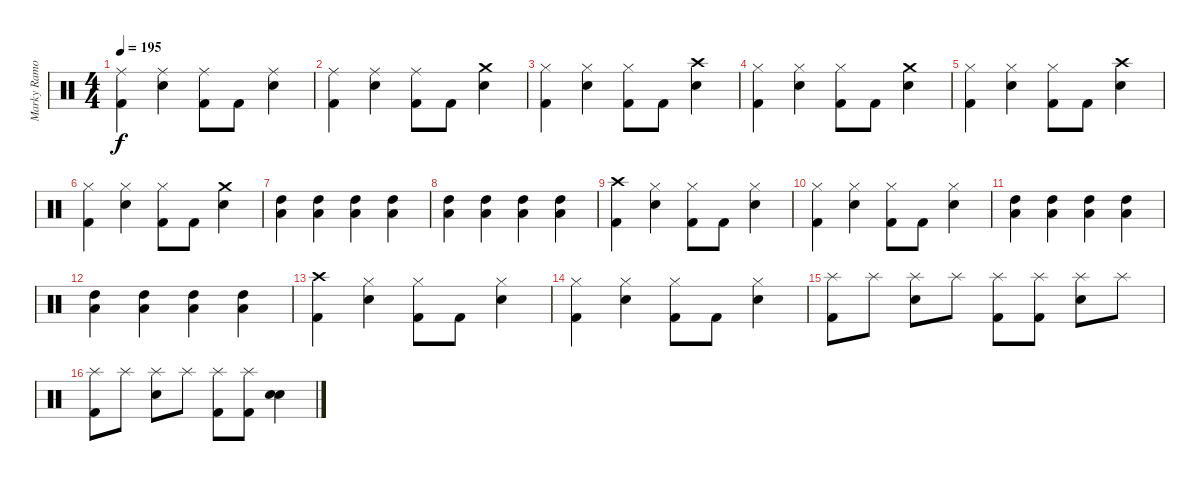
\track ("Marky Ramone" "Marky Ramo") {instrument percussion}
\staff {score}
\articulation defaults
\ts (4 4)
\tempo 195
\clef neutral
\ks c
("Ride (middle)" "Kick (hit) 2").4{dy f} ("Ride (middle)" "Snare (hit) 2").4 ("Ride (middle)" "Kick (hit) 2").8 "Kick (hit) 2".8 ("Ride (middle)" "Snare (hit) 2").4 |
("Ride (middle)" "Kick (hit) 2").4 ("Ride (middle)" "Snare (hit) 2").4 ("Ride (middle)" "Kick (hit) 2").8 "Kick (hit) 2".8 ("Crash medium (hit)" "Snare (hit) 2").4 |
("Hi-Hat (closed)" "Kick (hit) 2").4 ("Hi-Hat (closed)" "Snare (hit) 2").4 ("Hi-Hat (closed)" "Kick (hit) 2").8 "Kick (hit) 2".8 ("Crash high (hit)" "Snare (hit) 2").4 |
("Hi-Hat (closed)" "Kick (hit) 2").4 ("Hi-Hat (closed)" "Snare (hit) 2").4 ("Hi-Hat (closed)" "Kick (hit) 2").8 "Kick (hit) 2".8 ("Crash medium (hit)" "Snare (hit) 2").4 |
("Hi-Hat (closed)" "Kick (hit) 2").4 ("Hi-Hat (closed)" "Snare (hit) 2").4 ("Hi-Hat (closed)" "Kick (hit) 2").8 "Kick (hit) 2".8 ("Crash high (hit)" "Snare (hit) 2").4 |
("Hi-Hat (closed)" "Kick (hit) 2").4 ("Hi-Hat (closed)" "Snare (hit) 2").4 ("Hi-Hat (closed)" "Kick (hit) 2").8 "Kick (hit) 2".8 ("Crash medium (hit)" "Snare (hit) 2").4 |
("Low Floor Tom (hit)" "High Tom (hit)").4 ("Low Floor Tom (hit)" "High Tom (hit)").4 ("Low Floor Tom (hit)" "High Tom (hit)").4 ("Low Floor Tom (hit)" "High Tom (hit)").4 |
("Low Floor Tom (hit)" "High Tom (hit)").4 ("Low Floor Tom (hit)" "High Tom (hit)").4 ("Low Floor Tom (hit)" "High Tom (hit)").4 ("Low Floor Tom (hit)" "High Tom (hit)").4 |
("Crash high (hit)" "Kick (hit) 2").4 ("Hi-Hat (closed)" "Snare (hit) 2").4 ("Hi-Hat (closed)" "Kick (hit) 2").8 "Kick (hit) 2".8 ("Hi-Hat (closed)" "Snare (hit) 2").4 |
("Hi-Hat (closed)" "Kick (hit) 2").4 ("Hi-Hat (closed)" "Snare (hit) 2").4 ("Hi-Hat (closed)" "Kick (hit) 2").8 "Kick (hit) 2".8 ("Hi-Hat (closed)" "Snare (hit) 2").4 |
("Low Floor Tom (hit)" "High Tom (hit)").4 ("Low Floor Tom (hit)" "High Tom (hit)").4 ("Low Floor Tom (hit)" "High Tom (hit)").4 ("Low Floor Tom (hit)" "High Tom (hit)").4 |
("Low Floor Tom (hit)" "High Tom (hit)").4 ("Low Floor Tom (hit)" "High Tom (hit)").4 ("Low Floor Tom (hit)" "High Tom (hit)").4 ("Low Floor Tom (hit)" "High Tom (hit)").4 |
("Crash high (hit)" "Kick (hit) 2").4 ("Hi-Hat (closed)" "Snare (hit) 2").4 ("Hi-Hat (closed)" "Kick (hit) 2").8 "Kick (hit) 2".8 ("Hi-Hat (closed)" "Snare (hit) 2").4 |
("Hi-Hat (closed)" "Kick (hit) 2").4 ("Hi-Hat (closed)" "Snare (hit) 2").4 ("Hi-Hat (closed)" "Kick (hit) 2").8 "Kick (hit) 2".8 ("Hi-Hat (closed)" "Snare (hit) 2").4 |
("Splash (hit)" "Kick (hit) 2").8 "Splash (hit)".8 ("Splash (hit)" "Snare (hit) 2").8 "Splash (hit)".8 ("Splash (hit)" "Kick (hit) 2").8 ("Splash (hit)" "Kick (hit) 2").8 ("Splash (hit)" "Snare (hit) 2").8 "Splash (hit)".8 |
("Splash (hit)" "Kick (hit) 2").8 "Splash (hit)".8 ("Splash (hit)" "Snare (hit) 2").8 "Splash (hit)".8 ("Splash (hit)" "Kick (hit) 2").8 ("Splash (hit)" "Kick (hit) 2").8 ("Snare (hit) 2" "Snare (hit) 2").4
